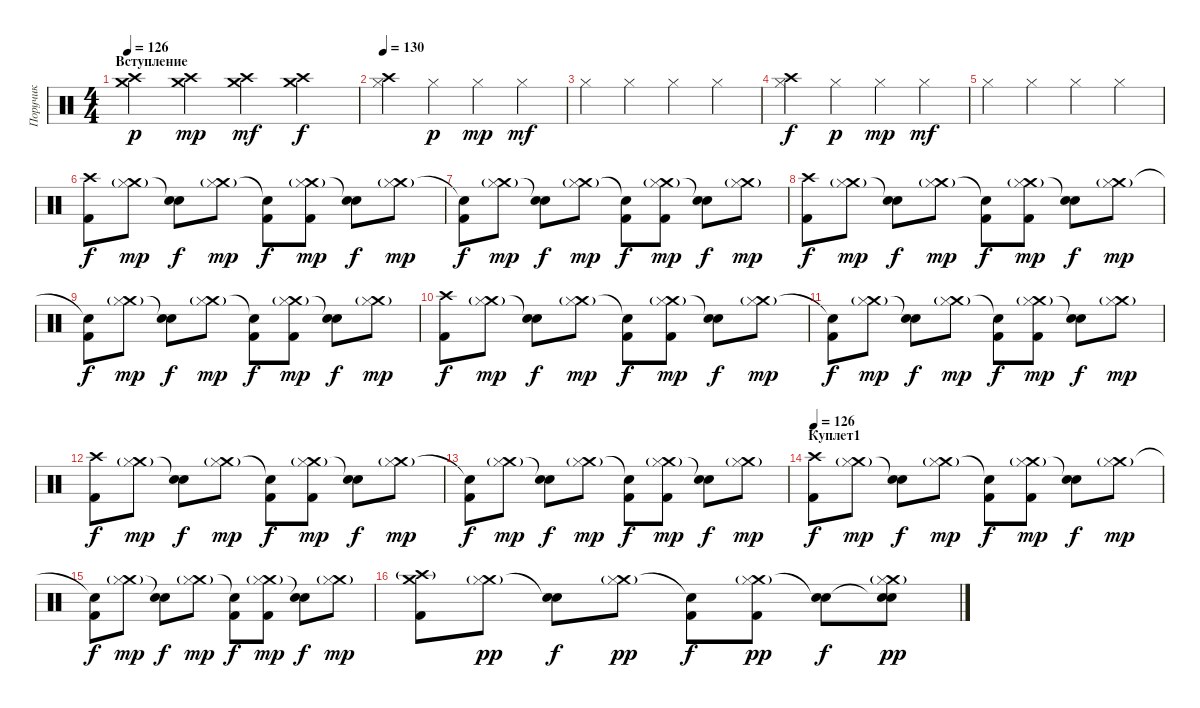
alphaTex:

\track ("Поручик" "Поручик") {instrument percussion}
\staff {score}
\articulation defaults
\ts (4 4)
\section ("" "Вступление")
\tempo 126
\clef neutral
\ks c
("Crash high (hit)" "Crash medium (hit)").4{dy p} ("Crash high (hit)" "Crash medium (hit)").4{dy mp} ("Crash high (hit)" "Crash medium (hit)").4{dy mf} ("Crash high (hit)" "Crash medium (hit)").4{dy f} |
\tempo 130
("Crash high (hit)" "Hi-Hat (closed)").4 "Hi-Hat (closed)".4{dy p} "Hi-Hat (closed)".4{dy mp} "Hi-Hat (closed)".4{dy mf} |
"Hi-Hat (closed)".4 "Hi-Hat (closed)".4 "Hi-Hat (closed)".4 "Hi-Hat (closed)".4 |
("Crash high (hit)" "Hi-Hat (closed)").4{dy f} "Hi-Hat (closed)".4{dy p} "Hi-Hat (closed)".4{dy mp} "Hi-Hat (closed)".4{dy mf} |
"Hi-Hat (closed)".4 "Hi-Hat (closed)".4 "Hi-Hat (closed)".4 "Hi-Hat (closed)".4 |
("Kick (hit) 2" "Crash high (hit)").8{dy f} ("Crash medium (hit)"{g} "Hi-Hat (closed)").8{dy mp} ("Snare (hit) 2" "Snare (hit)"{t}).8{dy f} ("Crash medium (hit)"{g} "Hi-Hat (closed)").8{dy mp} ("Kick (hit) 2" "Snare (hit)"{t}).8{dy f} ("Kick (hit) 2" "Crash medium (hit)"{g} "Hi-Hat (closed)").8{dy mp} ("Snare (hit) 2" "Snare (hit)"{t}).8{dy f} ("Crash medium (hit)"{g} "Hi-Hat (closed)").8{dy mp} |
("Kick (hit) 2" "Snare (hit)"{t}).8{dy f} ("Crash medium (hit)"{g} "Hi-Hat (closed)").8{dy mp} ("Snare (hit) 2" "Snare (hit)"{t}).8{dy f} ("Crash medium (hit)"{g} "Hi-Hat (closed)").8{dy mp} ("Kick (hit) 2" "Snare (hit)"{t}).8{dy f} ("Kick (hit) 2" "Crash medium (hit)"{g} "Hi-Hat (closed)").8{dy mp} ("Snare (hit) 2" "Snare (hit)"{t}).8{dy f} ("Crash medium (hit)"{g} "Hi-Hat (closed)").8{dy mp} |
("Kick (hit) 2" "Crash high (hit)").8{dy f} ("Crash medium (hit)"{g} "Hi-Hat (closed)").8{dy mp} ("Snare (hit) 2" "Snare (hit)"{t}).8{dy f} ("Crash medium (hit)"{g} "Hi-Hat (closed)").8{dy mp} ("Kick (hit) 2" "Snare (hit)"{t}).8{dy f} ("Kick (hit) 2" "Crash medium (hit)"{g} "Hi-Hat (closed)").8{dy mp} ("Snare (hit) 2" "Snare (hit)"{t}).8{dy f} ("Crash medium (hit)"{g} "Hi-Hat (closed)").8{dy mp} |
("Kick (hit) 2" "Snare (hit)"{t}).8{dy f} ("Crash medium (hit)"{g} "Hi-Hat (closed)").8{dy mp} ("Snare (hit) 2" "Snare (hit)"{t}).8{dy f} ("Crash medium (hit)"{g} "Hi-Hat (closed)").8{dy mp} ("Kick (hit) 2" "Snare (hit)"{t}).8{dy f} ("Kick (hit) 2" "Crash medium (hit)"{g} "Hi-Hat (closed)").8{dy mp} ("Snare (hit) 2" "Snare (hit)"{t}).8{dy f} ("Crash medium (hit)"{g} "Hi-Hat (closed)").8{dy mp} |
("Kick (hit) 2" "Crash high (hit)").8{dy f} ("Crash medium (hit)"{g} "Hi-Hat (closed)").8{dy mp} ("Snare (hit) 2" "Snare (hit)"{t}).8{dy f} ("Crash medium (hit)"{g} "Hi-Hat (closed)").8{dy mp} ("Kick (hit) 2" "Snare (hit)"{t}).8{dy f} ("Kick (hit) 2" "Crash medium (hit)"{g} "Hi-Hat (closed)").8{dy mp} ("Snare (hit) 2" "Snare (hit)"{t}).8{dy f} ("Crash medium (hit)"{g} "Hi-Hat (closed)").8{dy mp} |
("Kick (hit) 2" "Snare (hit)"{t}).8{dy f} ("Crash medium (hit)"{g} "Hi-Hat (closed)").8{dy mp} ("Snare (hit) 2" "Snare (hit)"{t}).8{dy f} ("Crash medium (hit)"{g} "Hi-Hat (closed)").8{dy mp} ("Kick (hit) 2" "Snare (hit)"{t}).8{dy f} ("Kick (hit) 2" "Crash medium (hit)"{g} "Hi-Hat (closed)").8{dy mp} ("Snare (hit) 2" "Snare (hit)"{t}).8{dy f} ("Crash medium (hit)"{g} "Hi-Hat (closed)").8{dy mp} |
("Kick (hit) 2" "Crash high (hit)").8{dy f} ("Crash medium (hit)"{g} "Hi-Hat (closed)").8{dy mp} ("Snare (hit) 2" "Snare (hit)"{t}).8{dy f} ("Crash medium (hit)"{g} "Hi-Hat (closed)").8{dy mp} ("Kick (hit) 2" "Snare (hit)"{t}).8{dy f} ("Kick (hit) 2" "Crash medium (hit)"{g} "Hi-Hat (closed)").8{dy mp} ("Snare (hit) 2" "Snare (hit)"{t}).8{dy f} ("Crash medium (hit)"{g} "Hi-Hat (closed)").8{dy mp} |
("Kick (hit) 2" "Snare (hit)"{t}).8{dy f} ("Crash medium (hit)"{g} "Hi-Hat (closed)").8{dy mp} ("Snare (hit) 2" "Snare (hit)"{t}).8{dy f} ("Crash medium (hit)"{g} "Hi-Hat (closed)").8{dy mp} ("Kick (hit) 2" "Snare (hit)"{t}).8{dy f} ("Kick (hit) 2" "Crash medium (hit)"{g} "Hi-Hat (closed)").8{dy mp} ("Snare (hit) 2" "Snare (hit)"{t}).8{dy f} ("Crash medium (hit)"{g} "Hi-Hat (closed)").8{dy mp} |
\section ("" "Куплет1")
\tempo 126
("Kick (hit) 2" "Crash high (hit)").8{dy f} ("Crash medium (hit)"{g} "Hi-Hat (closed)").8{dy mp} ("Snare (hit) 2" "Snare (hit)"{t}).8{dy f} ("Crash medium (hit)"{g} "Hi-Hat (closed)").8{dy mp} ("Kick (hit) 2" "Snare (hit)"{t}).8{dy f} ("Kick (hit) 2" "Crash medium (hit)"{g} "Hi-Hat (closed)").8{dy mp} ("Snare (hit) 2" "Snare (hit)"{t}).8{dy f} ("Crash medium (hit)"{g} "Hi-Hat (closed)").8{dy mp} |
("Kick (hit) 2" "Snare (hit)"{t}).8{dy f} ("Crash medium (hit)"{g} "Hi-Hat (closed)").8{dy mp} ("Snare (hit) 2" "Snare (hit)"{t}).8{dy f} ("Crash medium (hit)"{g} "Hi-Hat (closed)").8{dy mp} ("Kick (hit) 2" "Snare (hit)"{t}).8{dy f} ("Kick (hit) 2" "Crash medium (hit)"{g} "Hi-Hat (closed)").8{dy mp} ("Snare (hit) 2" "Snare (hit)"{t}).8{dy f} ("Crash medium (hit)"{g} "Hi-Hat (closed)").8{dy mp} |
("Kick (hit) 2" "Crash medium (hit)" "Crash high (hit)"{g}).8 ("Crash medium (hit)"{g} "Hi-Hat (closed)").8{dy pp} ("Snare (hit) 2" "Snare (hit)"{t}).8{dy f} ("Crash medium (hit)"{g} "Hi-Hat (closed)").8{dy pp} ("Kick (hit) 2" "Snare (hit)"{t}).8{dy f} ("Kick (hit) 2" "Crash medium (hit)"{g} "Hi-Hat (closed)").8{dy pp} ("Snare (hit) 2" "Snare (hit)"{t}).8{dy f} ("Crash medium (hit)"{g} "Snare (hit)"{t} "Hi-Hat (closed)" "Snare (hit)").8{dy pp}
